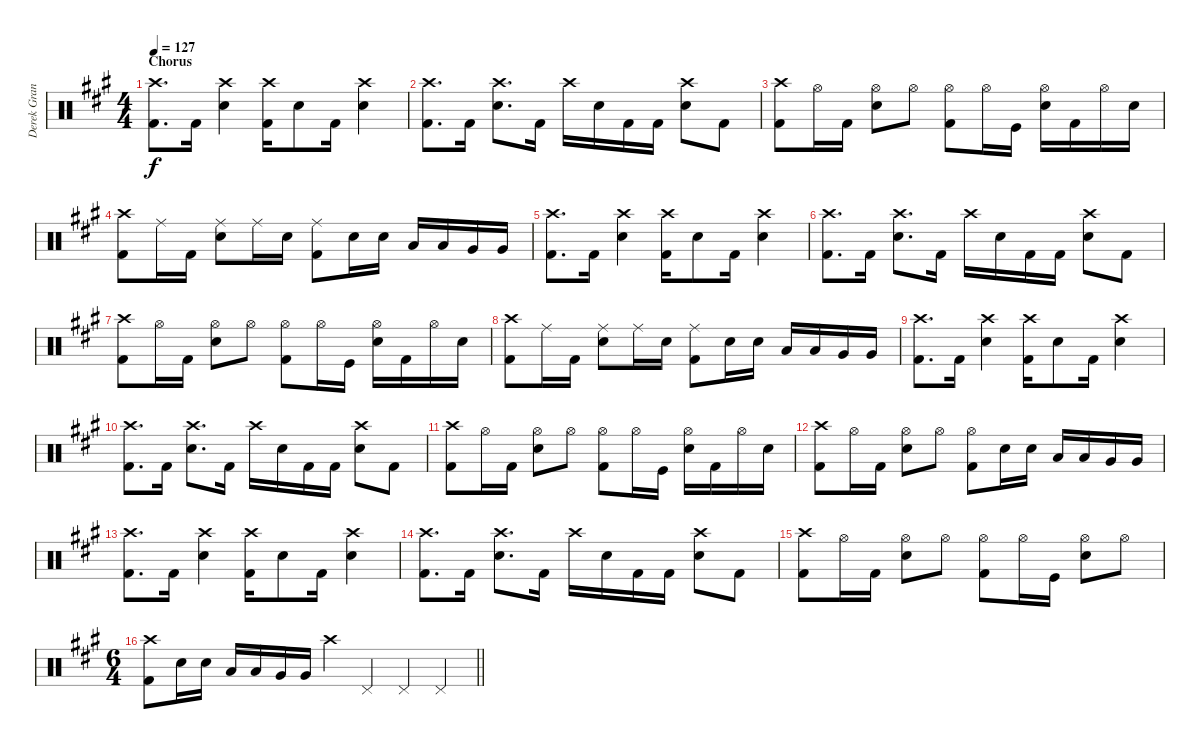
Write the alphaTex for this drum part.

\track ("Derek Grant - Drums" "Derek Gran") {instrument percussion}
\staff {score}
\articulation defaults
\ts (4 4)
\section ("" "Chorus")
\tempo 127
\clef neutral
\ks a
("Crash high (hit)" "Kick (hit) 2").8{d dy f} "Kick (hit) 2".16 ("Snare (hit) 2" "Crash high (hit)").4 ("Crash high (hit)" "Kick (hit) 2").16 "Snare (hit) 2".8 "Kick (hit) 2".16 ("Snare (hit) 2" "Crash high (hit)").4 |
("Crash high (hit)" "Kick (hit) 2").8{d} "Kick (hit) 2".16 ("Snare (hit) 2" "Crash high (hit)").8{d} "Kick (hit) 2".16 "Crash high (hit)".16 "Snare (hit) 2".16 "Kick (hit) 2".16 "Kick (hit) 2".16 ("Snare (hit) 2" "Crash high (hit)").8 "Kick (hit) 2".8 |
("Crash high (hit)" "Kick (hit) 2").8 "Hi-Hat (open)".16 "Kick (hit) 2".16 ("Snare (hit) 2" "Hi-Hat (open)").8 "Hi-Hat (open)".8 ("Hi-Hat (open)" "Kick (hit) 2").8 "Hi-Hat (open)".16 "Kick (hit)".16 ("Hi-Hat (open)" "Snare (hit) 2").16 "Kick (hit) 2".16 "Hi-Hat (open)".16 "Snare (hit) 2".16 |
("Crash high (hit)" "Kick (hit) 2").8 "Ride (middle)".16 "Kick (hit) 2".16 ("Snare (hit) 2" "Ride (middle)").8 "Ride (middle)".16 "Snare (hit) 2".16 ("Ride (middle)" "Kick (hit) 2").8 "Snare (hit) 2".16 "Snare (hit) 2".16 "Low Tom (hit)".16 "Low Tom (hit)".16 "Very Low Tom (hit)".16 "Very Low Tom (hit)".16 |
("Crash high (hit)" "Kick (hit) 2").8{d} "Kick (hit) 2".16 ("Snare (hit) 2" "Crash high (hit)").4 ("Crash high (hit)" "Kick (hit) 2").16 "Snare (hit) 2".8 "Kick (hit) 2".16 ("Snare (hit) 2" "Crash high (hit)").4 |
("Crash high (hit)" "Kick (hit) 2").8{d} "Kick (hit) 2".16 ("Snare (hit) 2" "Crash high (hit)").8{d} "Kick (hit) 2".16 "Crash high (hit)".16 "Snare (hit) 2".16 "Kick (hit) 2".16 "Kick (hit) 2".16 ("Snare (hit) 2" "Crash high (hit)").8 "Kick (hit) 2".8 |
("Crash high (hit)" "Kick (hit) 2").8 "Hi-Hat (open)".16 "Kick (hit) 2".16 ("Snare (hit) 2" "Hi-Hat (open)").8 "Hi-Hat (open)".8 ("Hi-Hat (open)" "Kick (hit) 2").8 "Hi-Hat (open)".16 "Kick (hit)".16 ("Hi-Hat (open)" "Snare (hit) 2").16 "Kick (hit) 2".16 "Hi-Hat (open)".16 "Snare (hit) 2".16 |
("Crash high (hit)" "Kick (hit) 2").8 "Ride (middle)".16 "Kick (hit) 2".16 ("Snare (hit) 2" "Ride (middle)").8 "Ride (middle)".16 "Snare (hit) 2".16 ("Ride (middle)" "Kick (hit) 2").8 "Snare (hit) 2".16 "Snare (hit) 2".16 "Low Tom (hit)".16 "Low Tom (hit)".16 "Very Low Tom (hit)".16 "Very Low Tom (hit)".16 |
("Crash high (hit)" "Kick (hit) 2").8{d} "Kick (hit) 2".16 ("Snare (hit) 2" "Crash high (hit)").4 ("Crash high (hit)" "Kick (hit) 2").16 "Snare (hit) 2".8 "Kick (hit) 2".16 ("Snare (hit) 2" "Crash high (hit)").4 |
("Crash high (hit)" "Kick (hit) 2").8{d} "Kick (hit) 2".16 ("Snare (hit) 2" "Crash high (hit)").8{d} "Kick (hit) 2".16 "Crash high (hit)".16 "Snare (hit) 2".16 "Kick (hit) 2".16 "Kick (hit) 2".16 ("Snare (hit) 2" "Crash high (hit)").8 "Kick (hit) 2".8 |
("Crash high (hit)" "Kick (hit) 2").8 "Hi-Hat (open)".16 "Kick (hit) 2".16 ("Snare (hit) 2" "Hi-Hat (open)").8 "Hi-Hat (open)".8 ("Hi-Hat (open)" "Kick (hit) 2").8 "Hi-Hat (open)".16 "Kick (hit)".16 ("Hi-Hat (open)" "Snare (hit) 2").16 "Kick (hit) 2".16 "Hi-Hat (open)".16 "Snare (hit) 2".16 |
("Crash high (hit)" "Kick (hit) 2").8 "Hi-Hat (open)".16 "Kick (hit) 2".16 ("Snare (hit) 2" "Hi-Hat (open)").8 "Hi-Hat (open)".8 ("Hi-Hat (open)" "Kick (hit) 2").8 "Snare (hit) 2".16 "Snare (hit) 2".16 "Low Tom (hit)".16 "Low Tom (hit)".16 "Very Low Tom (hit)".16 "Very Low Tom (hit)".16 |
("Crash high (hit)" "Kick (hit) 2").8{d} "Kick (hit) 2".16 ("Snare (hit) 2" "Crash high (hit)").4 ("Crash high (hit)" "Kick (hit) 2").16 "Snare (hit) 2".8 "Kick (hit) 2".16 ("Snare (hit) 2" "Crash high (hit)").4 |
("Crash high (hit)" "Kick (hit) 2").8{d} "Kick (hit) 2".16 ("Snare (hit) 2" "Crash high (hit)").8{d} "Kick (hit) 2".16 "Crash high (hit)".16 "Snare (hit) 2".16 "Kick (hit) 2".16 "Kick (hit) 2".16 ("Snare (hit) 2" "Crash high (hit)").8 "Kick (hit) 2".8 |
("Crash high (hit)" "Kick (hit) 2").8 "Hi-Hat (open)".16 "Kick (hit) 2".16 ("Snare (hit) 2" "Hi-Hat (open)").8 "Hi-Hat (open)".8 ("Hi-Hat (open)" "Kick (hit) 2").8 "Hi-Hat (open)".16 "Kick (hit)".16 ("Hi-Hat (open)" "Snare (hit) 2").8 "Hi-Hat (open)".8 |
\ts (6 4)
\barLineRight lightlight
("Crash high (hit)" "Kick (hit) 2").8 "Snare (hit) 2".16 "Snare (hit) 2".16 "Low Tom (hit)".16 "Low Tom (hit)".16 "Very Low Tom (hit)".16 "Very Low Tom (hit)".16 "Crash high (hit)".4 "Pedal Hi-Hat (hit)".4 "Pedal Hi-Hat (hit)".4 "Pedal Hi-Hat (hit)".4
